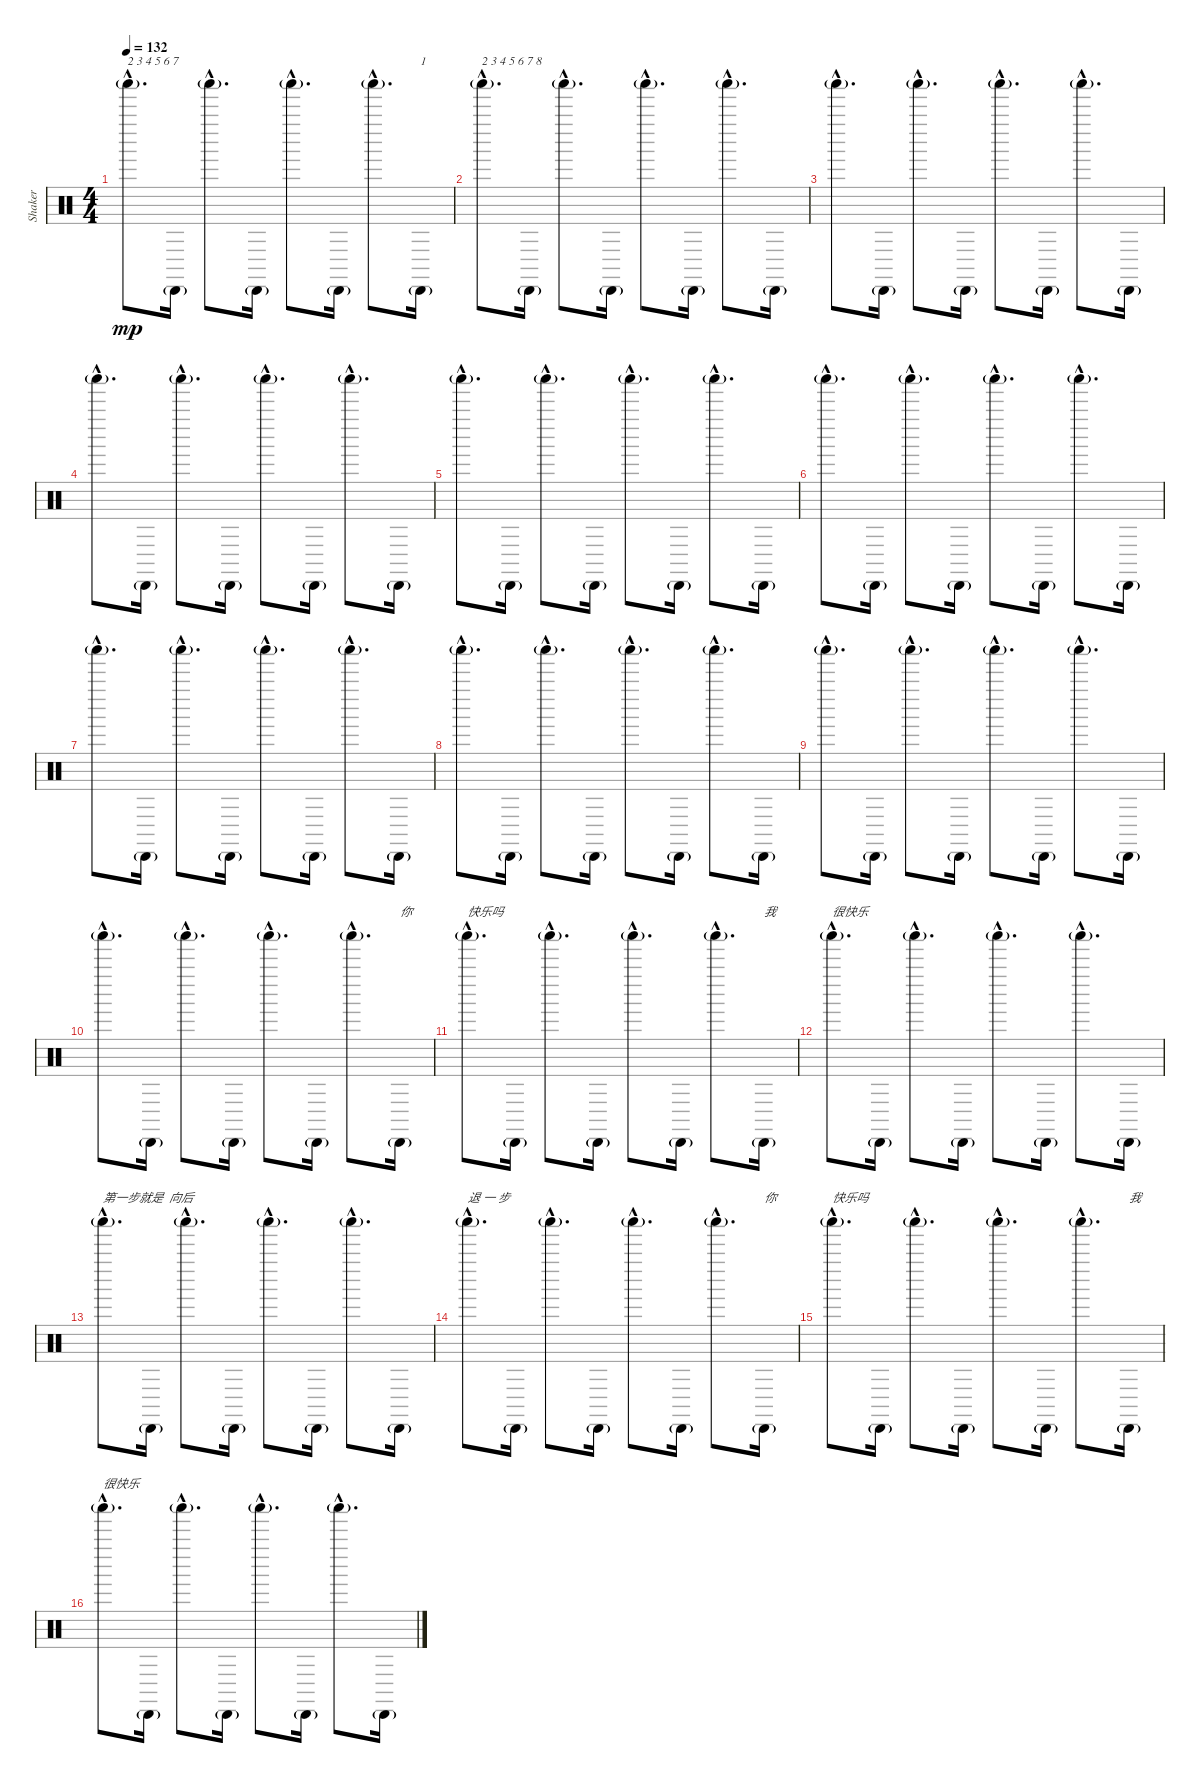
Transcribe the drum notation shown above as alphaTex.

\track ("Shaker" "Shaker") {instrument percussion}
\staff {score}
\articulation defaults
\ts (4 4)
\tempo 132
\clef neutral
\ks c "Shaker (hit)"{g hac}.8{d txt "2 3 4 5 6 7" dy mp} "Cabasa (hit)"{g}.16 "Shaker (hit)"{g hac}.8{d} "Cabasa (hit)"{g}.16 "Shaker (hit)"{g hac}.8{d} "Cabasa (hit)"{g}.16 "Shaker (hit)"{g hac}.8{d} "Cabasa (hit)"{g}.16{txt "1"}
|
"Shaker (hit)"{g hac}.8{d txt "2 3 4 5 6 7 8"} "Cabasa (hit)"{g}.16 "Shaker (hit)"{g hac}.8{d} "Cabasa (hit)"{g}.16 "Shaker (hit)"{g hac}.8{d} "Cabasa (hit)"{g}.16 "Shaker (hit)"{g hac}.8{d} "Cabasa (hit)"{g}.16 |
"Shaker (hit)"{g hac}.8{d} "Cabasa (hit)"{g}.16 "Shaker (hit)"{g hac}.8{d} "Cabasa (hit)"{g}.16 "Shaker (hit)"{g hac}.8{d} "Cabasa (hit)"{g}.16 "Shaker (hit)"{g hac}.8{d} "Cabasa (hit)"{g}.16 |
"Shaker (hit)"{g hac}.8{d} "Cabasa (hit)"{g}.16 "Shaker (hit)"{g hac}.8{d} "Cabasa (hit)"{g}.16 "Shaker (hit)"{g hac}.8{d} "Cabasa (hit)"{g}.16 "Shaker (hit)"{g hac}.8{d} "Cabasa (hit)"{g}.16 |
"Shaker (hit)"{g hac}.8{d} "Cabasa (hit)"{g}.16 "Shaker (hit)"{g hac}.8{d} "Cabasa (hit)"{g}.16 "Shaker (hit)"{g hac}.8{d} "Cabasa (hit)"{g}.16 "Shaker (hit)"{g hac}.8{d} "Cabasa (hit)"{g}.16 |
"Shaker (hit)"{g hac}.8{d} "Cabasa (hit)"{g}.16 "Shaker (hit)"{g hac}.8{d} "Cabasa (hit)"{g}.16 "Shaker (hit)"{g hac}.8{d} "Cabasa (hit)"{g}.16 "Shaker (hit)"{g hac}.8{d} "Cabasa (hit)"{g}.16 |
"Shaker (hit)"{g hac}.8{d} "Cabasa (hit)"{g}.16 "Shaker (hit)"{g hac}.8{d} "Cabasa (hit)"{g}.16 "Shaker (hit)"{g hac}.8{d} "Cabasa (hit)"{g}.16 "Shaker (hit)"{g hac}.8{d} "Cabasa (hit)"{g}.16 |
"Shaker (hit)"{g hac}.8{d} "Cabasa (hit)"{g}.16 "Shaker (hit)"{g hac}.8{d} "Cabasa (hit)"{g}.16 "Shaker (hit)"{g hac}.8{d} "Cabasa (hit)"{g}.16 "Shaker (hit)"{g hac}.8{d} "Cabasa (hit)"{g}.16 |
"Shaker (hit)"{g hac}.8{d} "Cabasa (hit)"{g}.16 "Shaker (hit)"{g hac}.8{d} "Cabasa (hit)"{g}.16 "Shaker (hit)"{g hac}.8{d} "Cabasa (hit)"{g}.16 "Shaker (hit)"{g hac}.8{d} "Cabasa (hit)"{g}.16 |
"Shaker (hit)"{g hac}.8{d} "Cabasa (hit)"{g}.16 "Shaker (hit)"{g hac}.8{d} "Cabasa (hit)"{g}.16 "Shaker (hit)"{g hac}.8{d} "Cabasa (hit)"{g}.16 "Shaker (hit)"{g hac}.8{d} "Cabasa (hit)"{g}.16{txt "你"} |
"Shaker (hit)"{g hac}.8{d txt "快乐吗 "} "Cabasa (hit)"{g}.16 "Shaker (hit)"{g hac}.8{d} "Cabasa (hit)"{g}.16 "Shaker (hit)"{g hac}.8{d} "Cabasa (hit)"{g}.16 "Shaker (hit)"{g hac}.8{d} "Cabasa (hit)"{g}.16{txt "我"} |
"Shaker (hit)"{g hac}.8{d txt "很快乐"} "Cabasa (hit)"{g}.16 "Shaker (hit)"{g hac}.8{d} "Cabasa (hit)"{g}.16 "Shaker (hit)"{g hac}.8{d} "Cabasa (hit)"{g}.16 "Shaker (hit)"{g hac}.8{d} "Cabasa (hit)"{g}.16 |
"Shaker (hit)"{g hac}.8{d txt "第一步就是  向后"} "Cabasa (hit)"{g}.16 "Shaker (hit)"{g hac}.8{d} "Cabasa (hit)"{g}.16 "Shaker (hit)"{g hac}.8{d} "Cabasa (hit)"{g}.16 "Shaker (hit)"{g hac}.8{d} "Cabasa (hit)"{g}.16 |
"Shaker (hit)"{g hac}.8{d txt "退 一 步"} "Cabasa (hit)"{g}.16 "Shaker (hit)"{g hac}.8{d} "Cabasa (hit)"{g}.16 "Shaker (hit)"{g hac}.8{d} "Cabasa (hit)"{g}.16 "Shaker (hit)"{g hac}.8{d} "Cabasa (hit)"{g}.16{txt "你"} |
"Shaker (hit)"{g hac}.8{d txt "快乐吗"} "Cabasa (hit)"{g}.16 "Shaker (hit)"{g hac}.8{d} "Cabasa (hit)"{g}.16 "Shaker (hit)"{g hac}.8{d} "Cabasa (hit)"{g}.16 "Shaker (hit)"{g hac}.8{d} "Cabasa (hit)"{g}.16{txt "我"} |
"Shaker (hit)"{g hac}.8{d txt "很快乐"} "Cabasa (hit)"{g}.16 "Shaker (hit)"{g hac}.8{d} "Cabasa (hit)"{g}.16 "Shaker (hit)"{g hac}.8{d} "Cabasa (hit)"{g}.16 "Shaker (hit)"{g hac}.8{d} "Cabasa (hit)"{g}.16
